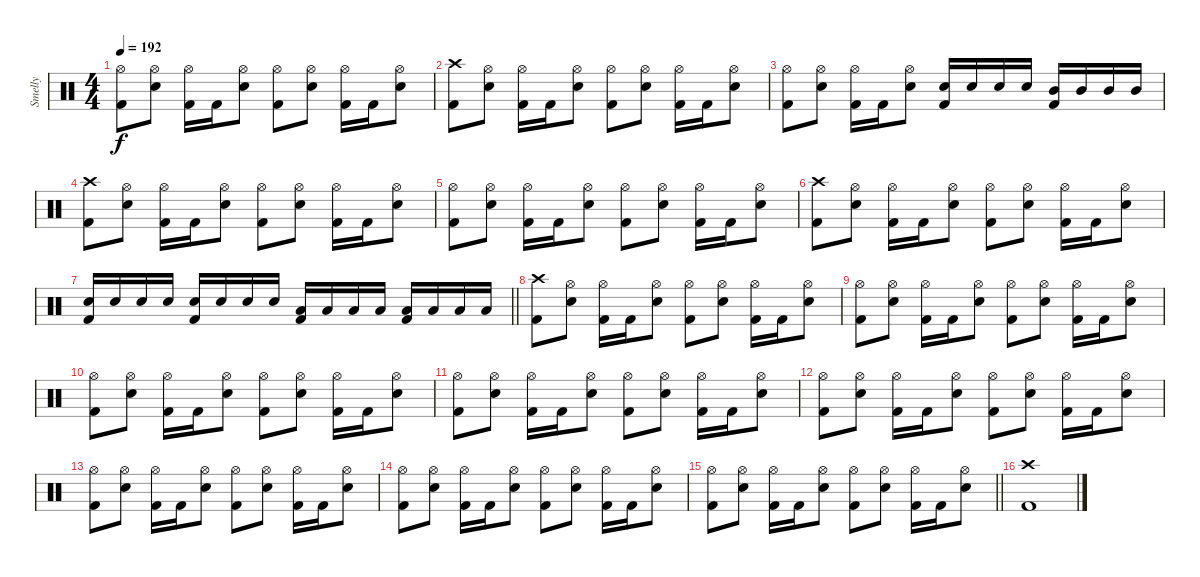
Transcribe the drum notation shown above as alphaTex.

\track ("Smelly" "Smelly") {instrument percussion}
\staff {score}
\articulation defaults
\ts (4 4)
\tempo 192
\clef neutral
\ks c
("Hi-Hat (open)" "Kick (hit) 2").8{dy f} ("Hi-Hat (open)" "Electric Snare (hit)").8 ("Hi-Hat (open)" "Kick (hit) 2").16 "Kick (hit) 2".16 ("Hi-Hat (open)" "Electric Snare (hit)").8 ("Hi-Hat (open)" "Kick (hit) 2").8 ("Hi-Hat (open)" "Electric Snare (hit)").8 ("Hi-Hat (open)" "Kick (hit) 2").16 "Kick (hit) 2".16 ("Hi-Hat (open)" "Electric Snare (hit)").8 |
("Crash high (hit)" "Kick (hit) 2").8 ("Hi-Hat (open)" "Electric Snare (hit)").8 ("Hi-Hat (open)" "Kick (hit) 2").16 "Kick (hit) 2".16 ("Hi-Hat (open)" "Electric Snare (hit)").8 ("Hi-Hat (open)" "Kick (hit) 2").8 ("Hi-Hat (open)" "Electric Snare (hit)").8 ("Hi-Hat (open)" "Kick (hit) 2").16 "Kick (hit) 2".16 ("Hi-Hat (open)" "Electric Snare (hit)").8 |
("Hi-Hat (open)" "Kick (hit) 2").8 ("Hi-Hat (open)" "Electric Snare (hit)").8 ("Hi-Hat (open)" "Kick (hit) 2").16 "Kick (hit) 2".16 ("Hi-Hat (open)" "Electric Snare (hit)").8 ("Electric Snare (hit)" "Kick (hit) 2").16 "Electric Snare (hit)".16 "Electric Snare (hit)".16 "Electric Snare (hit)".16 ("Mid Tom (hit)" "Kick (hit) 2").16 "Mid Tom (hit)".16 "Mid Tom (hit)".16 "Mid Tom (hit)".16 |
("Crash high (hit)" "Kick (hit) 2").8 ("Hi-Hat (open)" "Electric Snare (hit)").8 ("Hi-Hat (open)" "Kick (hit) 2").16 "Kick (hit) 2".16 ("Hi-Hat (open)" "Electric Snare (hit)").8 ("Hi-Hat (open)" "Kick (hit) 2").8 ("Hi-Hat (open)" "Electric Snare (hit)").8 ("Hi-Hat (open)" "Kick (hit) 2").16 "Kick (hit) 2".16 ("Hi-Hat (open)" "Electric Snare (hit)").8 |
("Hi-Hat (open)" "Kick (hit) 2").8 ("Hi-Hat (open)" "Electric Snare (hit)").8 ("Hi-Hat (open)" "Kick (hit) 2").16 "Kick (hit) 2".16 ("Hi-Hat (open)" "Electric Snare (hit)").8 ("Hi-Hat (open)" "Kick (hit) 2").8 ("Hi-Hat (open)" "Electric Snare (hit)").8 ("Hi-Hat (open)" "Kick (hit) 2").16 "Kick (hit) 2".16 ("Hi-Hat (open)" "Electric Snare (hit)").8 |
("Crash high (hit)" "Kick (hit) 2").8 ("Hi-Hat (open)" "Electric Snare (hit)").8 ("Hi-Hat (open)" "Kick (hit) 2").16 "Kick (hit) 2".16 ("Hi-Hat (open)" "Electric Snare (hit)").8 ("Hi-Hat (open)" "Kick (hit) 2").8 ("Hi-Hat (open)" "Electric Snare (hit)").8 ("Hi-Hat (open)" "Kick (hit) 2").16 "Kick (hit) 2".16 ("Hi-Hat (open)" "Electric Snare (hit)").8 |
\barLineRight lightlight
("Electric Snare (hit)" "Kick (hit) 2").16 "Electric Snare (hit)".16 "Electric Snare (hit)".16 "Electric Snare (hit)".16 ("Electric Snare (hit)" "Kick (hit) 2").16 "Electric Snare (hit)".16 "Electric Snare (hit)".16 "Electric Snare (hit)".16 ("Low Tom (hit)" "Kick (hit) 2").16 "Low Tom (hit)".16 "Low Tom (hit)".16 "Low Tom (hit)".16 ("Low Floor Tom (hit)" "Kick (hit) 2").16 "Low Floor Tom (hit)".16 "Low Floor Tom (hit)".16 "Low Floor Tom (hit)".16 |
\section ("" "")
("Crash high (hit)" "Kick (hit) 2").8 ("Hi-Hat (open)" "Electric Snare (hit)").8 ("Hi-Hat (open)" "Kick (hit) 2").16 "Kick (hit) 2".16 ("Hi-Hat (open)" "Electric Snare (hit)").8 ("Hi-Hat (open)" "Kick (hit) 2").8 ("Hi-Hat (open)" "Electric Snare (hit)").8 ("Hi-Hat (open)" "Kick (hit) 2").16 "Kick (hit) 2".16 ("Hi-Hat (open)" "Electric Snare (hit)").8 |
("Hi-Hat (open)" "Kick (hit) 2").8 ("Hi-Hat (open)" "Electric Snare (hit)").8 ("Hi-Hat (open)" "Kick (hit) 2").16 "Kick (hit) 2".16 ("Hi-Hat (open)" "Electric Snare (hit)").8 ("Hi-Hat (open)" "Kick (hit) 2").8 ("Hi-Hat (open)" "Electric Snare (hit)").8 ("Hi-Hat (open)" "Kick (hit) 2").16 "Kick (hit) 2".16 ("Hi-Hat (open)" "Electric Snare (hit)").8 |
("Hi-Hat (open)" "Kick (hit) 2").8 ("Hi-Hat (open)" "Electric Snare (hit)").8 ("Hi-Hat (open)" "Kick (hit) 2").16 "Kick (hit) 2".16 ("Hi-Hat (open)" "Electric Snare (hit)").8 ("Hi-Hat (open)" "Kick (hit) 2").8 ("Hi-Hat (open)" "Electric Snare (hit)").8 ("Hi-Hat (open)" "Kick (hit) 2").16 "Kick (hit) 2".16 ("Hi-Hat (open)" "Electric Snare (hit)").8 |
("Hi-Hat (open)" "Kick (hit) 2").8 ("Hi-Hat (open)" "Electric Snare (hit)").8 ("Hi-Hat (open)" "Kick (hit) 2").16 "Kick (hit) 2".16 ("Hi-Hat (open)" "Electric Snare (hit)").8 ("Hi-Hat (open)" "Kick (hit) 2").8 ("Hi-Hat (open)" "Electric Snare (hit)").8 ("Hi-Hat (open)" "Kick (hit) 2").16 "Kick (hit) 2".16 ("Hi-Hat (open)" "Electric Snare (hit)").8 |
("Hi-Hat (open)" "Kick (hit) 2").8 ("Hi-Hat (open)" "Electric Snare (hit)").8 ("Hi-Hat (open)" "Kick (hit) 2").16 "Kick (hit) 2".16 ("Hi-Hat (open)" "Electric Snare (hit)").8 ("Hi-Hat (open)" "Kick (hit) 2").8 ("Hi-Hat (open)" "Electric Snare (hit)").8 ("Hi-Hat (open)" "Kick (hit) 2").16 "Kick (hit) 2".16 ("Hi-Hat (open)" "Electric Snare (hit)").8 |
("Hi-Hat (open)" "Kick (hit) 2").8 ("Hi-Hat (open)" "Electric Snare (hit)").8 ("Hi-Hat (open)" "Kick (hit) 2").16 "Kick (hit) 2".16 ("Hi-Hat (open)" "Electric Snare (hit)").8 ("Hi-Hat (open)" "Kick (hit) 2").8 ("Hi-Hat (open)" "Electric Snare (hit)").8 ("Hi-Hat (open)" "Kick (hit) 2").16 "Kick (hit) 2".16 ("Hi-Hat (open)" "Electric Snare (hit)").8 |
("Hi-Hat (open)" "Kick (hit) 2").8 ("Hi-Hat (open)" "Electric Snare (hit)").8 ("Hi-Hat (open)" "Kick (hit) 2").16 "Kick (hit) 2".16 ("Hi-Hat (open)" "Electric Snare (hit)").8 ("Hi-Hat (open)" "Kick (hit) 2").8 ("Hi-Hat (open)" "Electric Snare (hit)").8 ("Hi-Hat (open)" "Kick (hit) 2").16 "Kick (hit) 2".16 ("Hi-Hat (open)" "Electric Snare (hit)").8 |
\barLineRight lightlight
("Hi-Hat (open)" "Kick (hit) 2").8 ("Hi-Hat (open)" "Electric Snare (hit)").8 ("Hi-Hat (open)" "Kick (hit) 2").16 "Kick (hit) 2".16 ("Hi-Hat (open)" "Electric Snare (hit)").8 ("Hi-Hat (open)" "Kick (hit) 2").8 ("Hi-Hat (open)" "Electric Snare (hit)").8 ("Hi-Hat (open)" "Kick (hit) 2").16 "Kick (hit) 2".16 ("Hi-Hat (open)" "Electric Snare (hit)").8 |
("Crash high (hit)" "Kick (hit) 2").1
